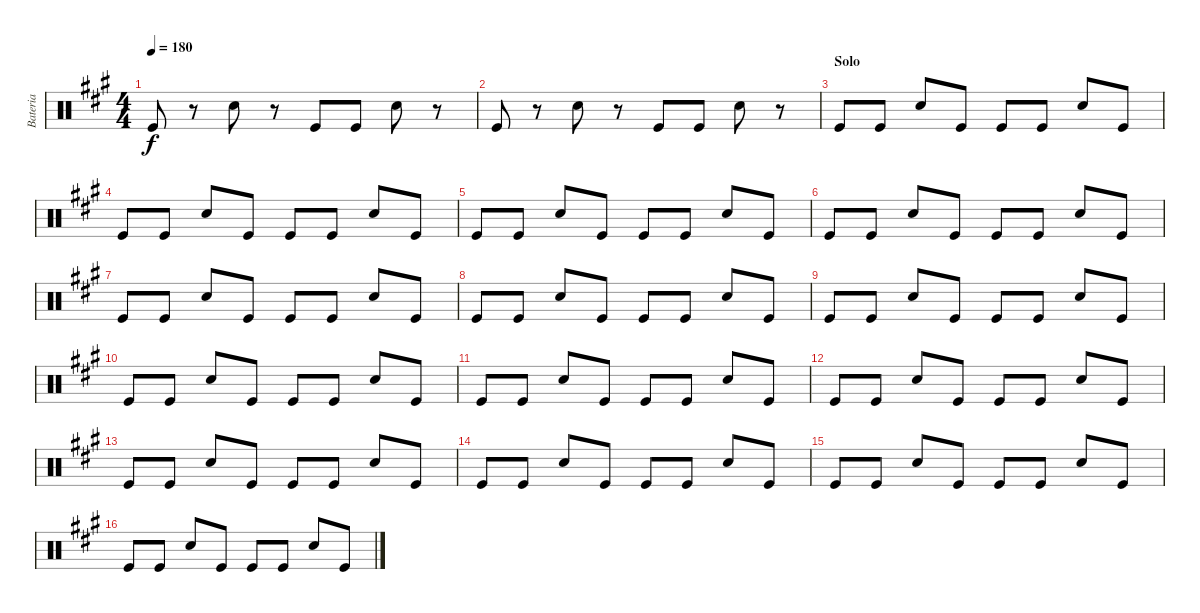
\track ("Bateria" "Bateria") {instrument percussion}
\staff {score}
\articulation defaults
\ts (4 4)
\tempo 180
\clef neutral
\ks a "Kick (hit)".8{dy f}
r.8 "Electric Snare (hit)".8 r.8 "Kick (hit)".8 "Kick (hit)".8 "Electric Snare (hit)".8 r.8 |
"Kick (hit)".8 r.8 "Electric Snare (hit)".8 r.8 "Kick (hit)".8 "Kick (hit)".8 "Electric Snare (hit)".8 r.8 |
\section ("" "Solo")
"Kick (hit)".8 "Kick (hit)".8 "Electric Snare (hit)".8 "Kick (hit)".8 "Kick (hit)".8 "Kick (hit)".8 "Electric Snare (hit)".8 "Kick (hit)".8 |
"Kick (hit)".8 "Kick (hit)".8 "Electric Snare (hit)".8 "Kick (hit)".8 "Kick (hit)".8 "Kick (hit)".8 "Electric Snare (hit)".8 "Kick (hit)".8 |
"Kick (hit)".8 "Kick (hit)".8 "Electric Snare (hit)".8 "Kick (hit)".8 "Kick (hit)".8 "Kick (hit)".8 "Electric Snare (hit)".8 "Kick (hit)".8 |
"Kick (hit)".8 "Kick (hit)".8 "Electric Snare (hit)".8 "Kick (hit)".8 "Kick (hit)".8 "Kick (hit)".8 "Electric Snare (hit)".8 "Kick (hit)".8 |
"Kick (hit)".8 "Kick (hit)".8 "Electric Snare (hit)".8 "Kick (hit)".8 "Kick (hit)".8 "Kick (hit)".8 "Electric Snare (hit)".8 "Kick (hit)".8 |
"Kick (hit)".8 "Kick (hit)".8 "Electric Snare (hit)".8 "Kick (hit)".8 "Kick (hit)".8 "Kick (hit)".8 "Electric Snare (hit)".8 "Kick (hit)".8 |
"Kick (hit)".8 "Kick (hit)".8 "Electric Snare (hit)".8 "Kick (hit)".8 "Kick (hit)".8 "Kick (hit)".8 "Electric Snare (hit)".8 "Kick (hit)".8 |
"Kick (hit)".8 "Kick (hit)".8 "Electric Snare (hit)".8 "Kick (hit)".8 "Kick (hit)".8 "Kick (hit)".8 "Electric Snare (hit)".8 "Kick (hit)".8 |
"Kick (hit)".8 "Kick (hit)".8 "Electric Snare (hit)".8 "Kick (hit)".8 "Kick (hit)".8 "Kick (hit)".8 "Electric Snare (hit)".8 "Kick (hit)".8 |
"Kick (hit)".8 "Kick (hit)".8 "Electric Snare (hit)".8 "Kick (hit)".8 "Kick (hit)".8 "Kick (hit)".8 "Electric Snare (hit)".8 "Kick (hit)".8 |
"Kick (hit)".8 "Kick (hit)".8 "Electric Snare (hit)".8 "Kick (hit)".8 "Kick (hit)".8 "Kick (hit)".8 "Electric Snare (hit)".8 "Kick (hit)".8 |
"Kick (hit)".8 "Kick (hit)".8 "Electric Snare (hit)".8 "Kick (hit)".8 "Kick (hit)".8 "Kick (hit)".8 "Electric Snare (hit)".8 "Kick (hit)".8 |
"Kick (hit)".8 "Kick (hit)".8 "Electric Snare (hit)".8 "Kick (hit)".8 "Kick (hit)".8 "Kick (hit)".8 "Electric Snare (hit)".8 "Kick (hit)".8 |
"Kick (hit)".8 "Kick (hit)".8 "Electric Snare (hit)".8 "Kick (hit)".8 "Kick (hit)".8 "Kick (hit)".8 "Electric Snare (hit)".8 "Kick (hit)".8
